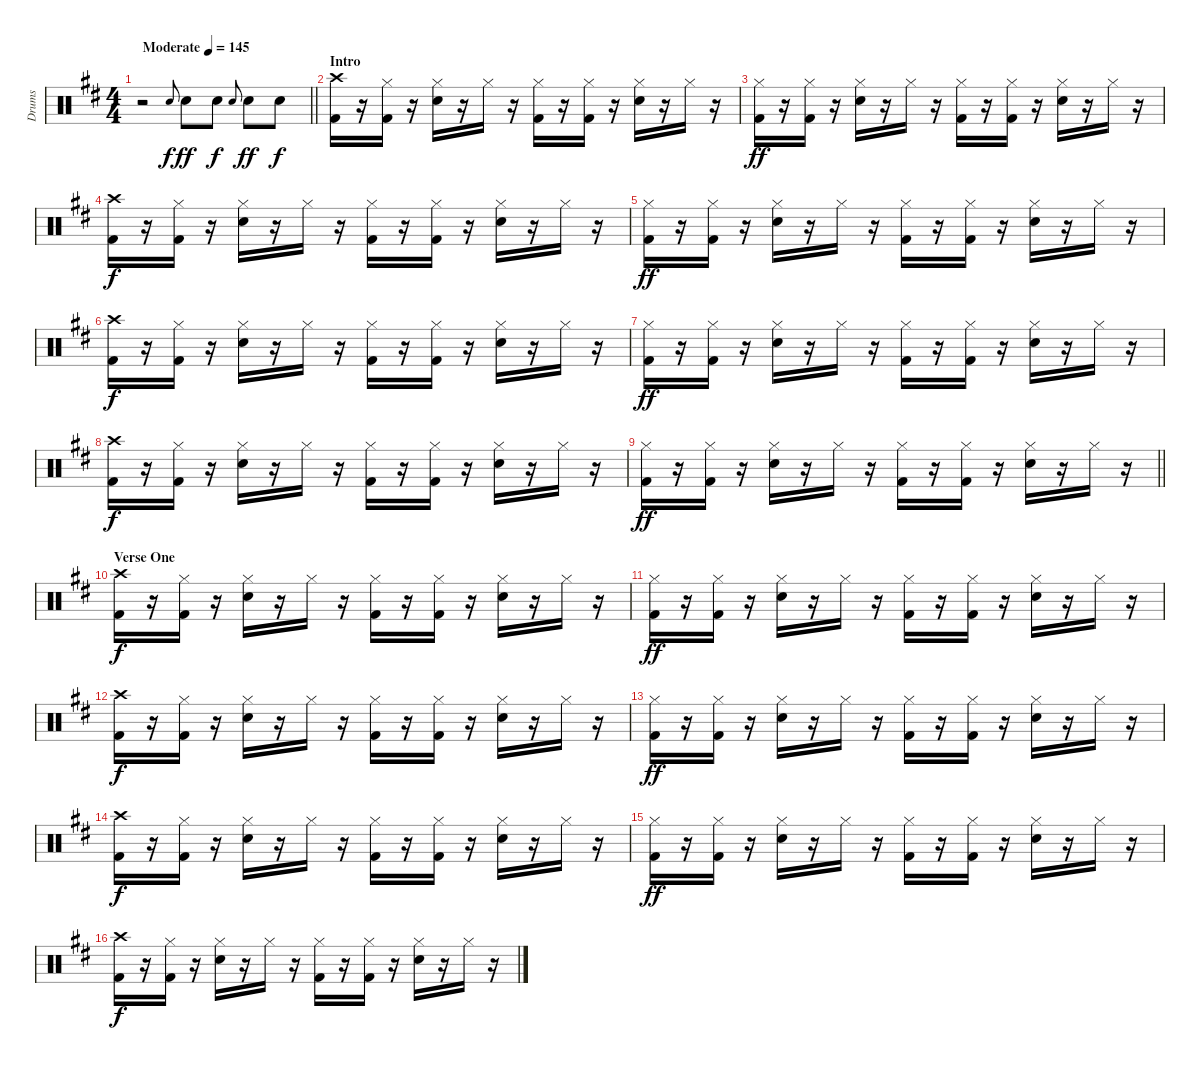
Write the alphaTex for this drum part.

\track ("Drums" "Drums") {instrument percussion}
\staff {score}
\articulation defaults
\ts (4 4)
\tempo (145 "Moderate")
\clef neutral
\barLineRight lightlight
\ks d
r.2{dy f} "Snare (hit) 2".8{gr onbeat} "Snare (hit) 2".8{dy ff} "Snare (hit) 2".8{dy f} "Snare (hit) 2".8{gr onbeat} "Snare (hit) 2".8{dy ff} "Snare (hit) 2".8{dy f} |
\section ("" "Intro")
("Crash high (hit)" "Kick (hit) 2").16 r.16 ("Hi-Hat (closed)" "Kick (hit) 2").16 r.16 ("Hi-Hat (closed)" "Snare (hit) 2").16 r.16 "Hi-Hat (closed)".16 r.16 ("Hi-Hat (closed)" "Kick (hit) 2").16 r.16 ("Hi-Hat (closed)" "Kick (hit) 2").16 r.16 ("Hi-Hat (closed)" "Snare (hit) 2").16 r.16 "Hi-Hat (closed)".16 r.16 |
("Hi-Hat (closed)" "Kick (hit) 2").16{dy ff} r.16 ("Hi-Hat (closed)" "Kick (hit) 2").16 r.16 ("Hi-Hat (closed)" "Snare (hit) 2").16 r.16 "Hi-Hat (closed)".16 r.16 ("Hi-Hat (closed)" "Kick (hit) 2").16 r.16 ("Hi-Hat (closed)" "Kick (hit) 2").16 r.16 ("Hi-Hat (closed)" "Snare (hit) 2").16 r.16 "Hi-Hat (closed)".16 r.16 |
("Crash high (hit)" "Kick (hit) 2").16{dy f} r.16 ("Hi-Hat (closed)" "Kick (hit) 2").16 r.16 ("Hi-Hat (closed)" "Snare (hit) 2").16 r.16 "Hi-Hat (closed)".16 r.16 ("Hi-Hat (closed)" "Kick (hit) 2").16 r.16 ("Hi-Hat (closed)" "Kick (hit) 2").16 r.16 ("Hi-Hat (closed)" "Snare (hit) 2").16 r.16 "Hi-Hat (closed)".16 r.16 |
("Hi-Hat (closed)" "Kick (hit) 2").16{dy ff} r.16 ("Hi-Hat (closed)" "Kick (hit) 2").16 r.16 ("Hi-Hat (closed)" "Snare (hit) 2").16 r.16 "Hi-Hat (closed)".16 r.16 ("Hi-Hat (closed)" "Kick (hit) 2").16 r.16 ("Hi-Hat (closed)" "Kick (hit) 2").16 r.16 ("Hi-Hat (closed)" "Snare (hit) 2").16 r.16 "Hi-Hat (closed)".16 r.16 |
("Crash high (hit)" "Kick (hit) 2").16{dy f} r.16 ("Hi-Hat (closed)" "Kick (hit) 2").16 r.16 ("Hi-Hat (closed)" "Snare (hit) 2").16 r.16 "Hi-Hat (closed)".16 r.16 ("Hi-Hat (closed)" "Kick (hit) 2").16 r.16 ("Hi-Hat (closed)" "Kick (hit) 2").16 r.16 ("Hi-Hat (closed)" "Snare (hit) 2").16 r.16 "Hi-Hat (closed)".16 r.16 |
("Hi-Hat (closed)" "Kick (hit) 2").16{dy ff} r.16 ("Hi-Hat (closed)" "Kick (hit) 2").16 r.16 ("Hi-Hat (closed)" "Snare (hit) 2").16 r.16 "Hi-Hat (closed)".16 r.16 ("Hi-Hat (closed)" "Kick (hit) 2").16 r.16 ("Hi-Hat (closed)" "Kick (hit) 2").16 r.16 ("Hi-Hat (closed)" "Snare (hit) 2").16 r.16 "Hi-Hat (closed)".16 r.16 |
("Crash high (hit)" "Kick (hit) 2").16{dy f} r.16 ("Hi-Hat (closed)" "Kick (hit) 2").16 r.16 ("Hi-Hat (closed)" "Snare (hit) 2").16 r.16 "Hi-Hat (closed)".16 r.16 ("Hi-Hat (closed)" "Kick (hit) 2").16 r.16 ("Hi-Hat (closed)" "Kick (hit) 2").16 r.16 ("Hi-Hat (closed)" "Snare (hit) 2").16 r.16 "Hi-Hat (closed)".16 r.16 |
\barLineRight lightlight
("Hi-Hat (closed)" "Kick (hit) 2").16{dy ff} r.16 ("Hi-Hat (closed)" "Kick (hit) 2").16 r.16 ("Hi-Hat (closed)" "Snare (hit) 2").16 r.16 "Hi-Hat (closed)".16 r.16 ("Hi-Hat (closed)" "Kick (hit) 2").16 r.16 ("Hi-Hat (closed)" "Kick (hit) 2").16 r.16 ("Hi-Hat (closed)" "Snare (hit) 2").16 r.16 "Hi-Hat (closed)".16 r.16 |
\section ("" "Verse One")
("Crash high (hit)" "Kick (hit) 2").16{dy f} r.16 ("Hi-Hat (closed)" "Kick (hit) 2").16 r.16 ("Hi-Hat (closed)" "Snare (hit) 2").16 r.16 "Hi-Hat (closed)".16 r.16 ("Hi-Hat (closed)" "Kick (hit) 2").16 r.16 ("Hi-Hat (closed)" "Kick (hit) 2").16 r.16 ("Hi-Hat (closed)" "Snare (hit) 2").16 r.16 "Hi-Hat (closed)".16 r.16 |
("Hi-Hat (closed)" "Kick (hit) 2").16{dy ff} r.16 ("Hi-Hat (closed)" "Kick (hit) 2").16 r.16 ("Hi-Hat (closed)" "Snare (hit) 2").16 r.16 "Hi-Hat (closed)".16 r.16 ("Hi-Hat (closed)" "Kick (hit) 2").16 r.16 ("Hi-Hat (closed)" "Kick (hit) 2").16 r.16 ("Hi-Hat (closed)" "Snare (hit) 2").16 r.16 "Hi-Hat (closed)".16 r.16 |
("Crash high (hit)" "Kick (hit) 2").16{dy f} r.16 ("Hi-Hat (closed)" "Kick (hit) 2").16 r.16 ("Hi-Hat (closed)" "Snare (hit) 2").16 r.16 "Hi-Hat (closed)".16 r.16 ("Hi-Hat (closed)" "Kick (hit) 2").16 r.16 ("Hi-Hat (closed)" "Kick (hit) 2").16 r.16 ("Hi-Hat (closed)" "Snare (hit) 2").16 r.16 "Hi-Hat (closed)".16 r.16 |
("Hi-Hat (closed)" "Kick (hit) 2").16{dy ff} r.16 ("Hi-Hat (closed)" "Kick (hit) 2").16 r.16 ("Hi-Hat (closed)" "Snare (hit) 2").16 r.16 "Hi-Hat (closed)".16 r.16 ("Hi-Hat (closed)" "Kick (hit) 2").16 r.16 ("Hi-Hat (closed)" "Kick (hit) 2").16 r.16 ("Hi-Hat (closed)" "Snare (hit) 2").16 r.16 "Hi-Hat (closed)".16 r.16 |
("Crash high (hit)" "Kick (hit) 2").16{dy f} r.16 ("Hi-Hat (closed)" "Kick (hit) 2").16 r.16 ("Hi-Hat (closed)" "Snare (hit) 2").16 r.16 "Hi-Hat (closed)".16 r.16 ("Hi-Hat (closed)" "Kick (hit) 2").16 r.16 ("Hi-Hat (closed)" "Kick (hit) 2").16 r.16 ("Hi-Hat (closed)" "Snare (hit) 2").16 r.16 "Hi-Hat (closed)".16 r.16 |
("Hi-Hat (closed)" "Kick (hit) 2").16{dy ff} r.16 ("Hi-Hat (closed)" "Kick (hit) 2").16 r.16 ("Hi-Hat (closed)" "Snare (hit) 2").16 r.16 "Hi-Hat (closed)".16 r.16 ("Hi-Hat (closed)" "Kick (hit) 2").16 r.16 ("Hi-Hat (closed)" "Kick (hit) 2").16 r.16 ("Hi-Hat (closed)" "Snare (hit) 2").16 r.16 "Hi-Hat (closed)".16 r.16 |
("Crash high (hit)" "Kick (hit) 2").16{dy f} r.16 ("Hi-Hat (closed)" "Kick (hit) 2").16 r.16 ("Hi-Hat (closed)" "Snare (hit) 2").16 r.16 "Hi-Hat (closed)".16 r.16 ("Hi-Hat (closed)" "Kick (hit) 2").16 r.16 ("Hi-Hat (closed)" "Kick (hit) 2").16 r.16 ("Hi-Hat (closed)" "Snare (hit) 2").16 r.16 "Hi-Hat (closed)".16 r.16
